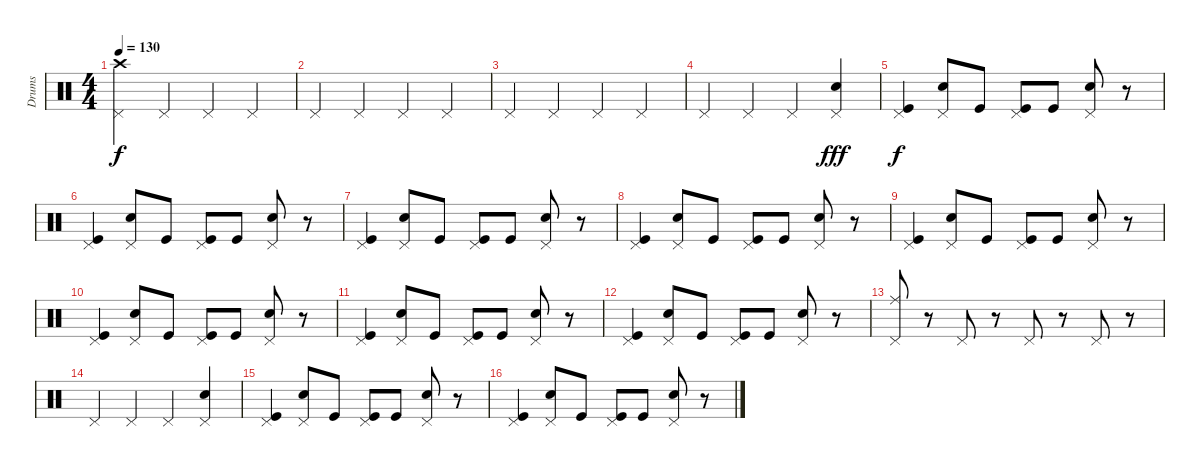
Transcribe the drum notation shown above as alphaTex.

\track ("Drums" "Drums") {instrument percussion}
\staff {score}
\articulation defaults
\ts (4 4)
\tempo 130
\clef neutral
\ks c
("Crash high (hit)" "Pedal Hi-Hat (hit)").4{dy f} "Pedal Hi-Hat (hit)".4 "Pedal Hi-Hat (hit)".4 "Pedal Hi-Hat (hit)".4 |
"Pedal Hi-Hat (hit)".4 "Pedal Hi-Hat (hit)".4 "Pedal Hi-Hat (hit)".4 "Pedal Hi-Hat (hit)".4 |
"Pedal Hi-Hat (hit)".4 "Pedal Hi-Hat (hit)".4 "Pedal Hi-Hat (hit)".4 "Pedal Hi-Hat (hit)".4 |
"Pedal Hi-Hat (hit)".4 "Pedal Hi-Hat (hit)".4 "Pedal Hi-Hat (hit)".4 ("Electric Snare (hit)" "Pedal Hi-Hat (hit)").4{dy fff} |
("Pedal Hi-Hat (hit)" "Kick (hit)").4{dy f} ("Pedal Hi-Hat (hit)" "Electric Snare (hit)").8 "Kick (hit)".8 ("Pedal Hi-Hat (hit)" "Kick (hit)").8 "Kick (hit)".8 ("Pedal Hi-Hat (hit)" "Electric Snare (hit)").8 r.8 |
("Pedal Hi-Hat (hit)" "Kick (hit)").4 ("Pedal Hi-Hat (hit)" "Electric Snare (hit)").8 "Kick (hit)".8 ("Pedal Hi-Hat (hit)" "Kick (hit)").8 "Kick (hit)".8 ("Pedal Hi-Hat (hit)" "Electric Snare (hit)").8 r.8 |
("Pedal Hi-Hat (hit)" "Kick (hit)").4 ("Pedal Hi-Hat (hit)" "Electric Snare (hit)").8 "Kick (hit)".8 ("Pedal Hi-Hat (hit)" "Kick (hit)").8 "Kick (hit)".8 ("Pedal Hi-Hat (hit)" "Electric Snare (hit)").8 r.8 |
("Pedal Hi-Hat (hit)" "Kick (hit)").4 ("Pedal Hi-Hat (hit)" "Electric Snare (hit)").8 "Kick (hit)".8 ("Pedal Hi-Hat (hit)" "Kick (hit)").8 "Kick (hit)".8 ("Pedal Hi-Hat (hit)" "Electric Snare (hit)").8 r.8 |
("Pedal Hi-Hat (hit)" "Kick (hit)").4 ("Pedal Hi-Hat (hit)" "Electric Snare (hit)").8 "Kick (hit)".8 ("Pedal Hi-Hat (hit)" "Kick (hit)").8 "Kick (hit)".8 ("Pedal Hi-Hat (hit)" "Electric Snare (hit)").8 r.8 |
("Pedal Hi-Hat (hit)" "Kick (hit)").4 ("Pedal Hi-Hat (hit)" "Electric Snare (hit)").8 "Kick (hit)".8 ("Pedal Hi-Hat (hit)" "Kick (hit)").8 "Kick (hit)".8 ("Pedal Hi-Hat (hit)" "Electric Snare (hit)").8 r.8 |
("Pedal Hi-Hat (hit)" "Kick (hit)").4 ("Pedal Hi-Hat (hit)" "Electric Snare (hit)").8 "Kick (hit)".8 ("Pedal Hi-Hat (hit)" "Kick (hit)").8 "Kick (hit)".8 ("Pedal Hi-Hat (hit)" "Electric Snare (hit)").8 r.8 |
("Pedal Hi-Hat (hit)" "Kick (hit)").4 ("Pedal Hi-Hat (hit)" "Electric Snare (hit)").8 "Kick (hit)".8 ("Pedal Hi-Hat (hit)" "Kick (hit)").8 "Kick (hit)".8 ("Pedal Hi-Hat (hit)" "Electric Snare (hit)").8 r.8 |
("Pedal Hi-Hat (hit)" "Ride (middle)").8 r.8 "Pedal Hi-Hat (hit)".8 r.8 "Pedal Hi-Hat (hit)".8 r.8 "Pedal Hi-Hat (hit)".8 r.8 |
"Pedal Hi-Hat (hit)".4 "Pedal Hi-Hat (hit)".4 "Pedal Hi-Hat (hit)".4 ("Electric Snare (hit)" "Pedal Hi-Hat (hit)").4 |
("Pedal Hi-Hat (hit)" "Kick (hit)").4 ("Pedal Hi-Hat (hit)" "Electric Snare (hit)").8 "Kick (hit)".8 ("Pedal Hi-Hat (hit)" "Kick (hit)").8 "Kick (hit)".8 ("Pedal Hi-Hat (hit)" "Electric Snare (hit)").8 r.8 |
("Pedal Hi-Hat (hit)" "Kick (hit)").4 ("Pedal Hi-Hat (hit)" "Electric Snare (hit)").8 "Kick (hit)".8 ("Pedal Hi-Hat (hit)" "Kick (hit)").8 "Kick (hit)".8 ("Pedal Hi-Hat (hit)" "Electric Snare (hit)").8 r.8
